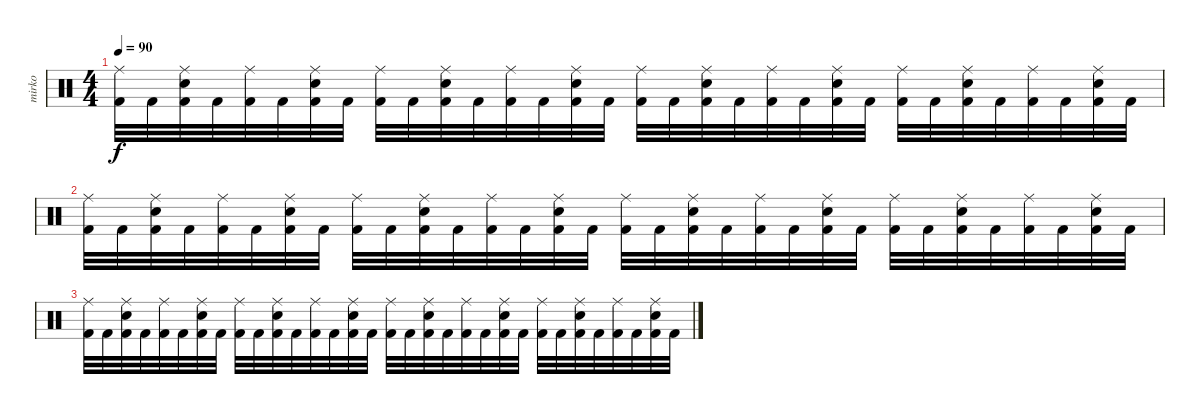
\track ("mirko" "mirko") {instrument percussion}
\staff {score}
\articulation defaults
\ts (4 4)
\tempo 90
\clef neutral
\ks c
("Ride (middle)" "Kick (hit) 2").32{dy f} "Kick (hit) 2".32 ("Ride (middle)" "Electric Snare (hit)" "Kick (hit) 2").32 "Kick (hit) 2".32 ("Ride (middle)" "Kick (hit) 2").32 "Kick (hit) 2".32 ("Ride (middle)" "Electric Snare (hit)" "Kick (hit) 2").32 "Kick (hit) 2".32 ("Ride (middle)" "Kick (hit) 2").32 "Kick (hit) 2".32 ("Ride (middle)" "Electric Snare (hit)" "Kick (hit) 2").32 "Kick (hit) 2".32 ("Ride (middle)" "Kick (hit) 2").32 "Kick (hit) 2".32 ("Ride (middle)" "Electric Snare (hit)" "Kick (hit) 2").32 "Kick (hit) 2".32 ("Ride (middle)" "Kick (hit) 2").32 "Kick (hit) 2".32 ("Ride (middle)" "Electric Snare (hit)" "Kick (hit) 2").32 "Kick (hit) 2".32 ("Ride (middle)" "Kick (hit) 2").32 "Kick (hit) 2".32 ("Ride (middle)" "Electric Snare (hit)" "Kick (hit) 2").32 "Kick (hit) 2".32 ("Ride (middle)" "Kick (hit) 2").32 "Kick (hit) 2".32 ("Ride (middle)" "Electric Snare (hit)" "Kick (hit) 2").32 "Kick (hit) 2".32 ("Ride (middle)" "Kick (hit) 2").32 "Kick (hit) 2".32 ("Ride (middle)" "Electric Snare (hit)" "Kick (hit) 2").32 "Kick (hit) 2".32 |
("Ride (middle)" "Kick (hit) 2").32 "Kick (hit) 2".32 ("Ride (middle)" "Electric Snare (hit)" "Kick (hit) 2").32 "Kick (hit) 2".32 ("Ride (middle)" "Kick (hit) 2").32 "Kick (hit) 2".32 ("Ride (middle)" "Electric Snare (hit)" "Kick (hit) 2").32 "Kick (hit) 2".32 ("Ride (middle)" "Kick (hit) 2").32 "Kick (hit) 2".32 ("Ride (middle)" "Electric Snare (hit)" "Kick (hit) 2").32 "Kick (hit) 2".32 ("Ride (middle)" "Kick (hit) 2").32 "Kick (hit) 2".32 ("Ride (middle)" "Electric Snare (hit)" "Kick (hit) 2").32 "Kick (hit) 2".32 ("Ride (middle)" "Kick (hit) 2").32 "Kick (hit) 2".32 ("Ride (middle)" "Electric Snare (hit)" "Kick (hit) 2").32 "Kick (hit) 2".32 ("Ride (middle)" "Kick (hit) 2").32 "Kick (hit) 2".32 ("Ride (middle)" "Electric Snare (hit)" "Kick (hit) 2").32 "Kick (hit) 2".32 ("Ride (middle)" "Kick (hit) 2").32 "Kick (hit) 2".32 ("Ride (middle)" "Electric Snare (hit)" "Kick (hit) 2").32 "Kick (hit) 2".32 ("Ride (middle)" "Kick (hit) 2").32 "Kick (hit) 2".32 ("Ride (middle)" "Electric Snare (hit)" "Kick (hit) 2").32 "Kick (hit) 2".32 |
("Ride (middle)" "Kick (hit) 2").32 "Kick (hit) 2".32 ("Ride (middle)" "Electric Snare (hit)" "Kick (hit) 2").32 "Kick (hit) 2".32 ("Ride (middle)" "Kick (hit) 2").32 "Kick (hit) 2".32 ("Ride (middle)" "Electric Snare (hit)" "Kick (hit) 2").32 "Kick (hit) 2".32 ("Ride (middle)" "Kick (hit) 2").32 "Kick (hit) 2".32 ("Ride (middle)" "Electric Snare (hit)" "Kick (hit) 2").32 "Kick (hit) 2".32 ("Ride (middle)" "Kick (hit) 2").32 "Kick (hit) 2".32 ("Ride (middle)" "Electric Snare (hit)" "Kick (hit) 2").32 "Kick (hit) 2".32 ("Ride (middle)" "Kick (hit) 2").32 "Kick (hit) 2".32 ("Ride (middle)" "Electric Snare (hit)" "Kick (hit) 2").32 "Kick (hit) 2".32 ("Ride (middle)" "Kick (hit) 2").32 "Kick (hit) 2".32 ("Ride (middle)" "Electric Snare (hit)" "Kick (hit) 2").32 "Kick (hit) 2".32 ("Ride (middle)" "Kick (hit) 2").32 "Kick (hit) 2".32 ("Ride (middle)" "Electric Snare (hit)" "Kick (hit) 2").32 "Kick (hit) 2".32 ("Ride (middle)" "Kick (hit) 2").32 "Kick (hit) 2".32 ("Ride (middle)" "Electric Snare (hit)" "Kick (hit) 2").32 "Kick (hit) 2".32
